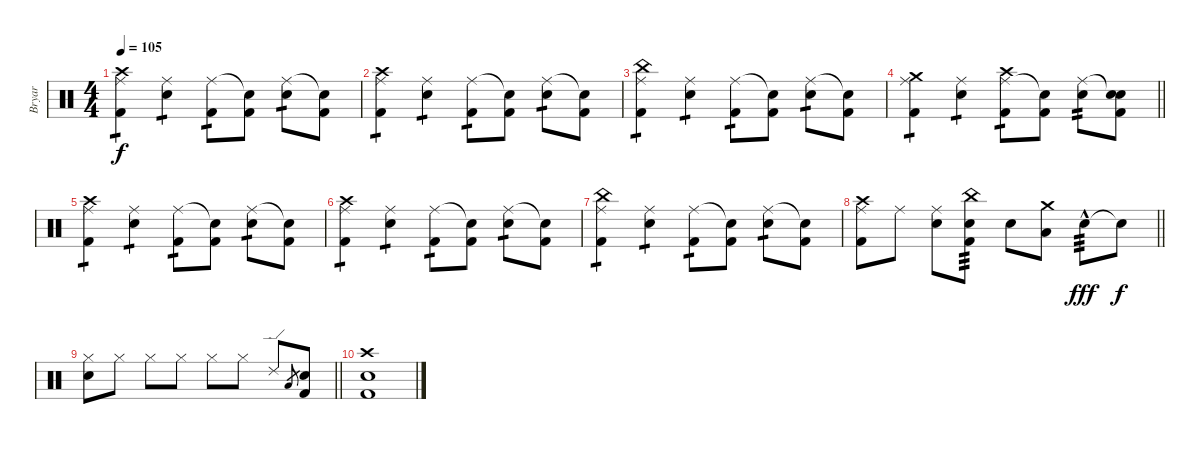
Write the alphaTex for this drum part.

\track ("Bryar" "Bryar") {instrument percussion}
\staff {score}
\articulation defaults
\ts (4 4)
\tempo 105
\clef neutral
\ks c
("Ride (middle)" "Crash high (hit)" "Kick (hit) 2").4{tp 1 dy f} ("Ride (middle)" "Electric Snare (hit)").4{tp 1} ("Ride (middle)" "Kick (hit) 2").8{tp 1} ("Snare (hit)"{t} "Kick (hit) 2").8 ("Ride (middle)" "Electric Snare (hit)").8{tp 1} ("Snare (hit)"{t} "Kick (hit) 2").8 |
("Ride (middle)" "Crash high (hit)" "Kick (hit) 2").4{tp 1} ("Ride (middle)" "Electric Snare (hit)").4{tp 1} ("Ride (middle)" "Kick (hit) 2").8{tp 1} ("Snare (hit)"{t} "Kick (hit) 2").8 ("Ride (middle)" "Electric Snare (hit)").8{tp 1} ("Snare (hit)"{t} "Kick (hit) 2").8 |
("Ride (middle)" "China (hit)" "Kick (hit) 2").4{tp 1} ("Ride (middle)" "Electric Snare (hit)").4{tp 1} ("Ride (middle)" "Kick (hit) 2").8{tp 1} ("Snare (hit)"{t} "Kick (hit) 2").8 ("Ride (middle)" "Electric Snare (hit)").8{tp 1} ("Snare (hit)"{t} "Kick (hit) 2").8 |
\barLineRight lightlight
("Ride (middle)" "Crash medium (hit)" "Kick (hit) 2").4{tp 1} ("Ride (middle)" "Electric Snare (hit)").4{tp 1} ("Ride (middle)" "Crash high (hit)" "Kick (hit) 2").8{tp 1} ("Snare (hit)"{t} "Kick (hit) 2").8 ("Ride (middle)" "Electric Snare (hit)").8{tp 2} ("Snare (hit)"{t} "Electric Snare (hit)" "Kick (hit) 2").8 |
("Ride (middle)" "Crash high (hit)" "Kick (hit) 2").4{tp 1} ("Ride (middle)" "Electric Snare (hit)").4{tp 1} ("Ride (middle)" "Kick (hit) 2").8{tp 1} ("Snare (hit)"{t} "Kick (hit) 2").8 ("Ride (middle)" "Electric Snare (hit)").8{tp 1} ("Snare (hit)"{t} "Kick (hit) 2").8 |
("Ride (middle)" "Crash high (hit)" "Kick (hit) 2").4{tp 1} ("Ride (middle)" "Electric Snare (hit)").4{tp 1} ("Ride (middle)" "Kick (hit) 2").8{tp 1} ("Snare (hit)"{t} "Kick (hit) 2").8 ("Ride (middle)" "Electric Snare (hit)").8{tp 1} ("Snare (hit)"{t} "Kick (hit) 2").8 |
("Ride (middle)" "China (hit)" "Kick (hit) 2").4{tp 1} ("Ride (middle)" "Electric Snare (hit)").4{tp 1} ("Ride (middle)" "Kick (hit) 2").8{tp 1} ("Snare (hit)"{t} "Kick (hit) 2").8 ("Ride (middle)" "Electric Snare (hit)").8{tp 1} ("Snare (hit)"{t} "Kick (hit) 2").8 |
\barLineRight lightlight
("Ride (middle)" "Crash high (hit)" "Kick (hit) 2").8 "Ride (middle)".8 ("Ride (middle)" "Electric Snare (hit)").8 ("China (hit)" "Electric Snare (hit)" "Kick (hit) 2").8{tp 3} "Electric Snare (hit)".8 ("Crash medium (hit)" "Low Tom (hit)").8 "Electric Snare (hit)"{hac}.8{tp 3 dy fff} "Electric Snare (hit)"{t}.8{dy f} |
\barLineRight lightlight
("Hi-Hat (closed)" "Electric Snare (hit)").8 "Hi-Hat (closed)".8 "Hi-Hat (closed)".8 "Hi-Hat (closed)".8 "Hi-Hat (closed)".8 "Hi-Hat (closed)".8 "Ride (edge) 2".8 "Low Floor Tom (hit)".8{gr} ("Electric Snare (hit)" "Kick (hit) 2").8 |
("Crash high (hit)" "Electric Snare (hit)" "Kick (hit) 2").1
